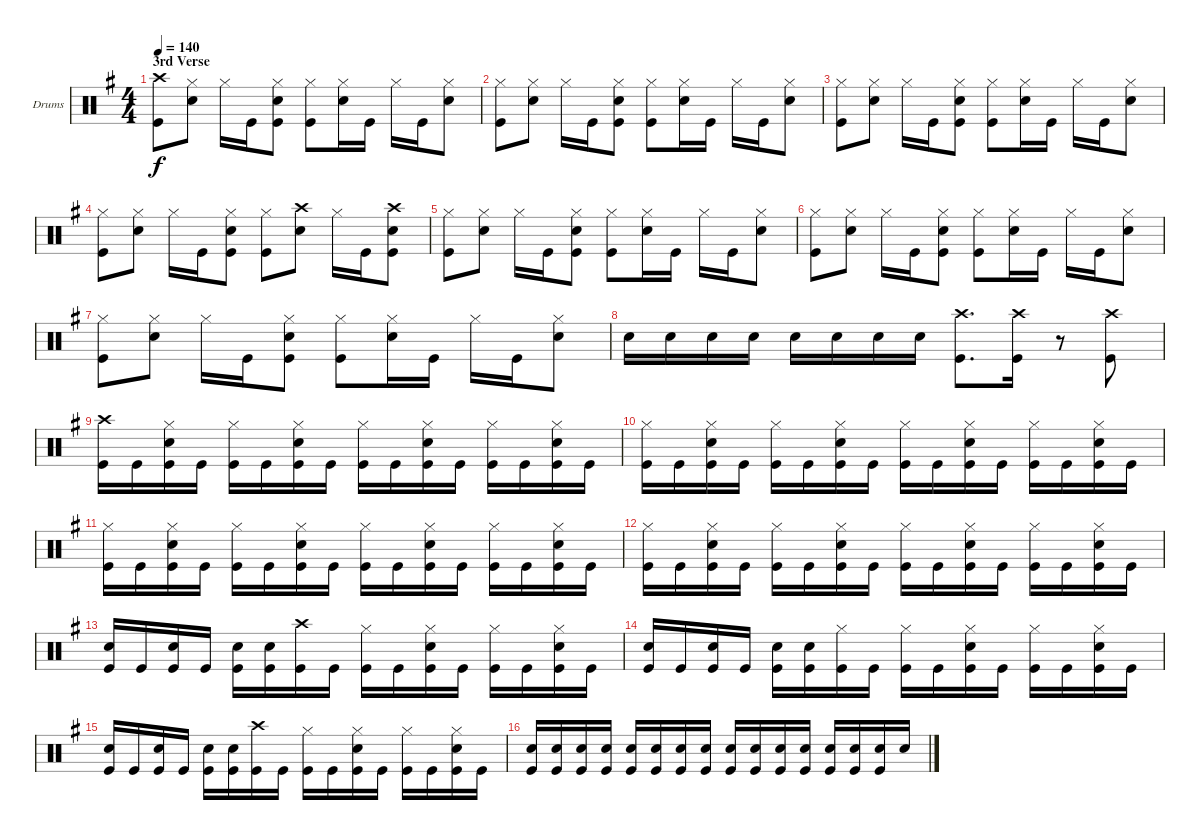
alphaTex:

\bracketExtendMode groupsimilarinstruments
\firstSystemTrackNameOrientation horizontal
\otherSystemsTrackNameOrientation horizontal
\track ("Drumkit" "Drums") {instrument percussion}
\staff {score}
\articulation defaults
\ts (4 4)
\section ("" "3rd Verse")
\tempo 140
\clef neutral
\scale
1.07314
\ks g
("Kick (hit)" "Crash high (hit)").8{dy f} ("Snare (hit) 2" "Hi-Hat (closed)").8 "Hi-Hat (closed)".16 "Kick (hit)".16 ("Kick (hit)" "Snare (hit) 2" "Hi-Hat (closed)").8 ("Kick (hit)" "Hi-Hat (closed)").8 ("Snare (hit) 2" "Hi-Hat (closed)").16 "Kick (hit)".16 "Hi-Hat (closed)".16 "Kick (hit)".16 ("Snare (hit) 2" "Hi-Hat (closed)").8 |
\scale
0.92686 ("Hi-Hat (closed)" "Kick (hit)").8 ("Snare (hit) 2" "Hi-Hat (closed)").8 "Hi-Hat (closed)".16 "Kick (hit)".16 ("Kick (hit)" "Snare (hit) 2" "Hi-Hat (closed)").8 ("Kick (hit)" "Hi-Hat (closed)").8 ("Snare (hit) 2" "Hi-Hat (closed)").16 "Kick (hit)".16 "Hi-Hat (closed)".16 "Kick (hit)".16 ("Snare (hit) 2" "Hi-Hat (closed)").8 |
\scale
1.04288 ("Hi-Hat (closed)" "Kick (hit)").8 ("Snare (hit) 2" "Hi-Hat (closed)").8 "Hi-Hat (closed)".16 "Kick (hit)".16 ("Snare (hit) 2" "Hi-Hat (closed)" "Kick (hit)").8 ("Hi-Hat (closed)" "Kick (hit)").8 ("Snare (hit) 2" "Hi-Hat (closed)").16 "Kick (hit)".16 "Hi-Hat (closed)".16 "Kick (hit)".16 ("Snare (hit) 2" "Hi-Hat (closed)").8 |
\scale
0.957125 ("Hi-Hat (closed)" "Kick (hit)").8 ("Snare (hit) 2" "Hi-Hat (closed)").8 "Hi-Hat (closed)".16 "Kick (hit)".16 ("Kick (hit)" "Snare (hit) 2" "Hi-Hat (closed)").8 ("Hi-Hat (closed)" "Kick (hit)").8 ("Crash high (hit)" "Snare (hit) 2").8 "Hi-Hat (closed)".16 "Kick (hit)".16 ("Kick (hit)" "Crash high (hit)" "Snare (hit) 2").8 |
\scale
1.04288 ("Hi-Hat (closed)" "Kick (hit)").8 ("Snare (hit) 2" "Hi-Hat (closed)").8 "Hi-Hat (closed)".16 "Kick (hit)".16 ("Kick (hit)" "Snare (hit) 2" "Hi-Hat (closed)").8 ("Kick (hit)" "Hi-Hat (closed)").8 ("Snare (hit) 2" "Hi-Hat (closed)").16 "Kick (hit)".16 "Hi-Hat (closed)".16 "Kick (hit)".16 ("Snare (hit) 2" "Hi-Hat (closed)").8 |
\scale
0.957125 ("Hi-Hat (closed)" "Kick (hit)").8 ("Snare (hit) 2" "Hi-Hat (closed)").8 "Hi-Hat (closed)".16 "Kick (hit)".16 ("Kick (hit)" "Snare (hit) 2" "Hi-Hat (closed)").8 ("Kick (hit)" "Hi-Hat (closed)").8 ("Snare (hit) 2" "Hi-Hat (closed)").16 "Kick (hit)".16 "Hi-Hat (closed)".16 "Kick (hit)".16 ("Snare (hit) 2" "Hi-Hat (closed)").8 |
\scale
1.04288 ("Hi-Hat (closed)" "Kick (hit)").8 ("Snare (hit) 2" "Hi-Hat (closed)").8 "Hi-Hat (closed)".16 "Kick (hit)".16 ("Kick (hit)" "Snare (hit) 2" "Hi-Hat (closed)").8 ("Kick (hit)" "Hi-Hat (closed)").8 ("Snare (hit) 2" "Hi-Hat (closed)").16 "Kick (hit)".16 "Hi-Hat (closed)".16 "Kick (hit)".16 ("Snare (hit) 2" "Hi-Hat (closed)").8 |
\scale
0.957125 "Snare (hit) 2".16 "Snare (hit) 2".16 "Snare (hit) 2".16 "Snare (hit) 2".16 "Snare (hit) 2".16 "Snare (hit) 2".16 "Snare (hit) 2".16 "Snare (hit) 2".16 ("Crash high (hit)" "Kick (hit)").8{d} ("Crash high (hit)" "Kick (hit)").16 r.8 ("Crash high (hit)" "Kick (hit)").8 |
\scale
1.04288 ("Crash high (hit)" "Kick (hit)").16 "Kick (hit)".16 ("Snare (hit) 2" "Hi-Hat (closed)" "Kick (hit)").16 "Kick (hit)".16 ("Hi-Hat (closed)" "Kick (hit)").16 "Kick (hit)".16 ("Snare (hit) 2" "Hi-Hat (closed)" "Kick (hit)").16 "Kick (hit)".16 ("Hi-Hat (closed)" "Kick (hit)").16 "Kick (hit)".16 ("Snare (hit) 2" "Hi-Hat (closed)" "Kick (hit)").16 "Kick (hit)".16 ("Hi-Hat (closed)" "Kick (hit)").16 "Kick (hit)".16 ("Snare (hit) 2" "Hi-Hat (closed)" "Kick (hit)").16 "Kick (hit)".16 |
\scale
0.957125 ("Hi-Hat (closed)" "Kick (hit)").16 "Kick (hit)".16 ("Snare (hit) 2" "Hi-Hat (closed)" "Kick (hit)").16 "Kick (hit)".16 ("Hi-Hat (closed)" "Kick (hit)").16 "Kick (hit)".16 ("Snare (hit) 2" "Hi-Hat (closed)" "Kick (hit)").16 "Kick (hit)".16 ("Hi-Hat (closed)" "Kick (hit)").16 "Kick (hit)".16 ("Snare (hit) 2" "Hi-Hat (closed)" "Kick (hit)").16 "Kick (hit)".16 ("Hi-Hat (closed)" "Kick (hit)").16 "Kick (hit)".16 ("Snare (hit) 2" "Hi-Hat (closed)" "Kick (hit)").16 "Kick (hit)".16 |
\scale
1.04288 ("Hi-Hat (closed)" "Kick (hit)").16 "Kick (hit)".16 ("Snare (hit) 2" "Hi-Hat (closed)" "Kick (hit)").16 "Kick (hit)".16 ("Hi-Hat (closed)" "Kick (hit)").16 "Kick (hit)".16 ("Snare (hit) 2" "Hi-Hat (closed)" "Kick (hit)").16 "Kick (hit)".16 ("Hi-Hat (closed)" "Kick (hit)").16 "Kick (hit)".16 ("Snare (hit) 2" "Hi-Hat (closed)" "Kick (hit)").16 "Kick (hit)".16 ("Hi-Hat (closed)" "Kick (hit)").16 "Kick (hit)".16 ("Snare (hit) 2" "Hi-Hat (closed)" "Kick (hit)").16 "Kick (hit)".16 |
\scale
0.957125 ("Hi-Hat (closed)" "Kick (hit)").16 "Kick (hit)".16 ("Snare (hit) 2" "Hi-Hat (closed)" "Kick (hit)").16 "Kick (hit)".16 ("Hi-Hat (closed)" "Kick (hit)").16 "Kick (hit)".16 ("Snare (hit) 2" "Hi-Hat (closed)" "Kick (hit)").16 "Kick (hit)".16 ("Hi-Hat (closed)" "Kick (hit)").16 "Kick (hit)".16 ("Snare (hit) 2" "Hi-Hat (closed)" "Kick (hit)").16 "Kick (hit)".16 ("Hi-Hat (closed)" "Kick (hit)").16 "Kick (hit)".16 ("Snare (hit) 2" "Hi-Hat (closed)" "Kick (hit)").16 "Kick (hit)".16 |
\scale
1.04288 ("Snare (hit) 2" "Kick (hit)").16 "Kick (hit)".16 ("Snare (hit) 2" "Kick (hit)").16 "Kick (hit)".16 ("Snare (hit) 2" "Kick (hit)").16 ("Snare (hit) 2" "Kick (hit)").16 ("Crash high (hit)" "Kick (hit)").16 "Kick (hit)".16 ("Hi-Hat (closed)" "Kick (hit)").16 "Kick (hit)".16 ("Snare (hit) 2" "Hi-Hat (closed)" "Kick (hit)").16 "Kick (hit)".16 ("Hi-Hat (closed)" "Kick (hit)").16 "Kick (hit)".16 ("Snare (hit) 2" "Hi-Hat (closed)" "Kick (hit)").16 "Kick (hit)".16 |
\scale
0.957125 ("Snare (hit) 2" "Kick (hit)").16 "Kick (hit)".16 ("Snare (hit) 2" "Kick (hit)").16 "Kick (hit)".16 ("Snare (hit) 2" "Kick (hit)").16 ("Snare (hit) 2" "Kick (hit)").16 ("Hi-Hat (closed)" "Kick (hit)").16 "Kick (hit)".16 ("Hi-Hat (closed)" "Kick (hit)").16 "Kick (hit)".16 ("Snare (hit) 2" "Hi-Hat (closed)" "Kick (hit)").16 "Kick (hit)".16 ("Hi-Hat (closed)" "Kick (hit)").16 "Kick (hit)".16 ("Snare (hit) 2" "Hi-Hat (closed)" "Kick (hit)").16 "Kick (hit)".16 |
\scale
1.04288 ("Snare (hit) 2" "Kick (hit)").16 "Kick (hit)".16 ("Snare (hit) 2" "Kick (hit)").16 "Kick (hit)".16 ("Snare (hit) 2" "Kick (hit)").16 ("Snare (hit) 2" "Kick (hit)").16 ("Crash high (hit)" "Kick (hit)").16 "Kick (hit)".16 ("Hi-Hat (closed)" "Kick (hit)").16 "Kick (hit)".16 ("Snare (hit) 2" "Hi-Hat (closed)" "Kick (hit)").16 "Kick (hit)".16 ("Hi-Hat (closed)" "Kick (hit)").16 "Kick (hit)".16 ("Snare (hit) 2" "Hi-Hat (closed)" "Kick (hit)").16 "Kick (hit)".16 |
\scale
0.957125 ("Snare (hit) 2" "Kick (hit)").16 ("Snare (hit) 2" "Kick (hit)").16 ("Snare (hit) 2" "Kick (hit)").16 ("Snare (hit) 2" "Kick (hit)").16 ("Snare (hit) 2" "Kick (hit)").16 ("Snare (hit) 2" "Kick (hit)").16 ("Snare (hit) 2" "Kick (hit)").16 ("Snare (hit) 2" "Kick (hit)").16 ("Snare (hit) 2" "Kick (hit)").16 ("Snare (hit) 2" "Kick (hit)").16 ("Snare (hit) 2" "Kick (hit)").16 ("Snare (hit) 2" "Kick (hit)").16 ("Snare (hit) 2" "Kick (hit)").16 ("Snare (hit) 2" "Kick (hit)").16 ("Snare (hit) 2" "Kick (hit)").16 "Snare (hit) 2".16
